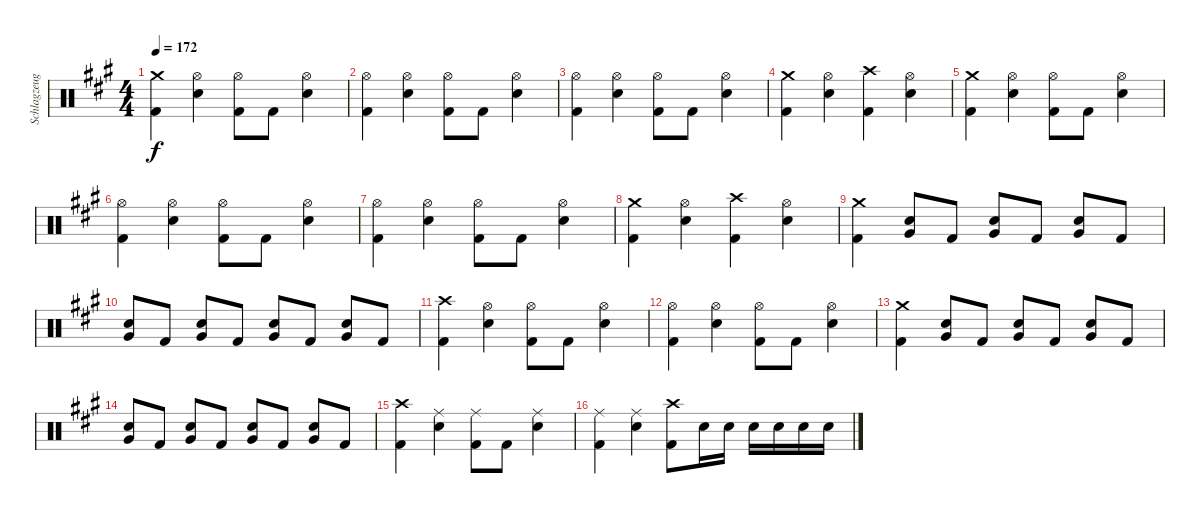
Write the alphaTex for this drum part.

\track ("Schlagzeug" "Schlagzeug") {instrument percussion}
\staff {score}
\articulation defaults
\ts (4 4)
\tempo 172
\clef neutral
\ks a
("Crash medium (hit)" "Kick (hit) 2").4{dy f} ("Hi-Hat (open)" "Snare (hit) 2").4 ("Hi-Hat (open)" "Kick (hit) 2").8 "Kick (hit) 2".8 ("Hi-Hat (open)" "Snare (hit) 2").4 |
("Hi-Hat (open)" "Kick (hit) 2").4 ("Hi-Hat (open)" "Snare (hit) 2").4 ("Hi-Hat (open)" "Kick (hit) 2").8 "Kick (hit) 2".8 ("Hi-Hat (open)" "Snare (hit) 2").4 |
("Hi-Hat (open)" "Kick (hit) 2").4 ("Hi-Hat (open)" "Snare (hit) 2").4 ("Hi-Hat (open)" "Kick (hit) 2").8 "Kick (hit) 2".8 ("Hi-Hat (open)" "Snare (hit) 2").4 |
("Crash medium (hit)" "Kick (hit) 2").4 ("Hi-Hat (open)" "Snare (hit) 2").4 ("Crash high (hit)" "Kick (hit) 2").4 ("Hi-Hat (open)" "Snare (hit) 2").4 |
("Crash medium (hit)" "Kick (hit) 2").4 ("Hi-Hat (open)" "Snare (hit) 2").4 ("Hi-Hat (open)" "Kick (hit) 2").8 "Kick (hit) 2".8 ("Hi-Hat (open)" "Snare (hit) 2").4 |
("Hi-Hat (open)" "Kick (hit) 2").4 ("Hi-Hat (open)" "Snare (hit) 2").4 ("Hi-Hat (open)" "Kick (hit) 2").8 "Kick (hit) 2".8 ("Hi-Hat (open)" "Snare (hit) 2").4 |
("Hi-Hat (open)" "Kick (hit) 2").4 ("Hi-Hat (open)" "Snare (hit) 2").4 ("Hi-Hat (open)" "Kick (hit) 2").8 "Kick (hit) 2".8 ("Hi-Hat (open)" "Snare (hit) 2").4 |
("Crash medium (hit)" "Kick (hit) 2").4 ("Hi-Hat (open)" "Snare (hit) 2").4 ("Crash high (hit)" "Kick (hit) 2").4 ("Hi-Hat (open)" "Snare (hit) 2").4 |
("Crash medium (hit)" "Kick (hit) 2").4 ("Snare (hit) 2" "Very Low Tom (hit)").8 "Kick (hit) 2".8 ("Snare (hit) 2" "Very Low Tom (hit)").8 "Kick (hit) 2".8 ("Snare (hit) 2" "Very Low Tom (hit)").8 "Kick (hit) 2".8 |
("Snare (hit) 2" "Very Low Tom (hit)").8 "Kick (hit) 2".8 ("Snare (hit) 2" "Very Low Tom (hit)").8 "Kick (hit) 2".8 ("Snare (hit) 2" "Very Low Tom (hit)").8 "Kick (hit) 2".8 ("Snare (hit) 2" "Very Low Tom (hit)").8 "Kick (hit) 2".8 |
("Crash high (hit)" "Kick (hit) 2").4 ("Hi-Hat (open)" "Snare (hit) 2").4 ("Hi-Hat (open)" "Kick (hit) 2").8 "Kick (hit) 2".8 ("Hi-Hat (open)" "Snare (hit) 2").4 |
("Hi-Hat (open)" "Kick (hit) 2").4 ("Hi-Hat (open)" "Snare (hit) 2").4 ("Hi-Hat (open)" "Kick (hit) 2").8 "Kick (hit) 2".8 ("Hi-Hat (open)" "Snare (hit) 2").4 |
("Crash medium (hit)" "Kick (hit) 2").4 ("Snare (hit) 2" "Very Low Tom (hit)").8 "Kick (hit) 2".8 ("Snare (hit) 2" "Very Low Tom (hit)").8 "Kick (hit) 2".8 ("Snare (hit) 2" "Very Low Tom (hit)").8 "Kick (hit) 2".8 |
("Snare (hit) 2" "Very Low Tom (hit)").8 "Kick (hit) 2".8 ("Snare (hit) 2" "Very Low Tom (hit)").8 "Kick (hit) 2".8 ("Snare (hit) 2" "Very Low Tom (hit)").8 "Kick (hit) 2".8 ("Snare (hit) 2" "Very Low Tom (hit)").8 "Kick (hit) 2".8 |
("Crash high (hit)" "Kick (hit) 2").4 ("Ride (middle)" "Snare (hit) 2").4 ("Ride (middle)" "Kick (hit) 2").8 "Kick (hit) 2".8 ("Ride (middle)" "Snare (hit) 2").4 |
("Ride (middle)" "Kick (hit) 2").4 ("Ride (middle)" "Snare (hit) 2").4 ("Crash high (hit)" "Kick (hit) 2").8 "Snare (hit) 2".16 "Snare (hit) 2".16 "Snare (hit) 2".16 "Snare (hit) 2".16 "Snare (hit) 2".16 "Snare (hit) 2".16
